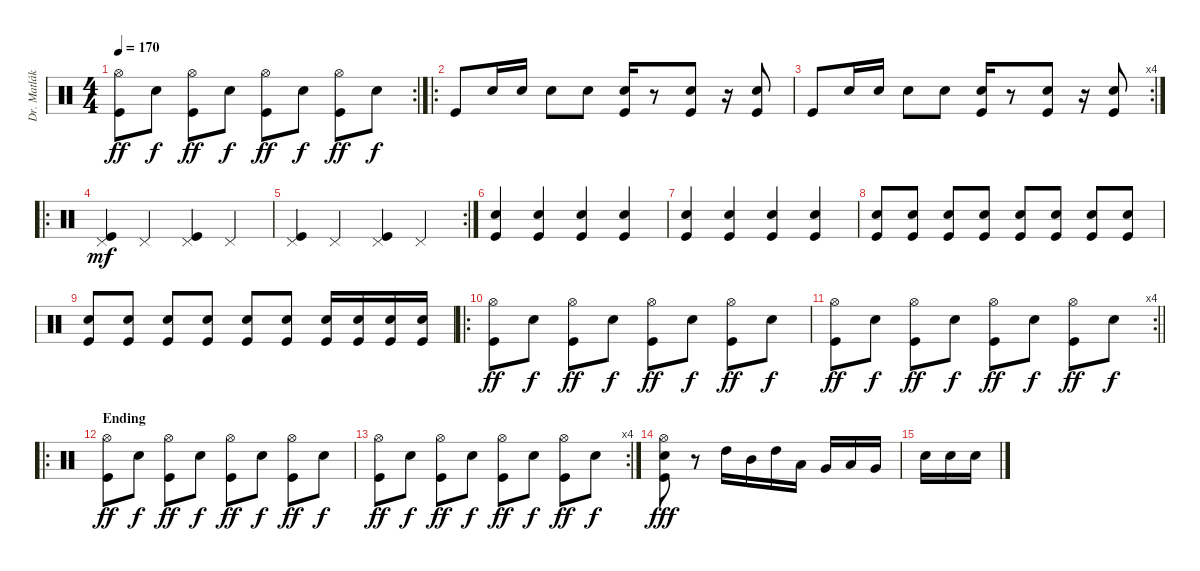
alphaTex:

\track ("Dr. Matlák" "Dr. Matlák") {instrument percussion}
\staff {score}
\articulation defaults
\rc 2
\ts (4 4)
\tempo 170
\clef neutral
\ks c
("Hi-Hat (open)" "Kick (hit)").8{dy ff} "Electric Snare (hit)".8{dy f} ("Hi-Hat (open)" "Kick (hit)").8{dy ff} "Electric Snare (hit)".8{dy f} ("Hi-Hat (open)" "Kick (hit)").8{dy ff} "Electric Snare (hit)".8{dy f} ("Hi-Hat (open)" "Kick (hit)").8{dy ff} "Electric Snare (hit)".8{dy f} |
\ro "Kick (hit)".8 "Electric Snare (hit)".16 "Electric Snare (hit)".16 "Electric Snare (hit)".8 "Electric Snare (hit)".8
("Electric Snare (hit)" "Kick (hit)").16 r.8 ("Electric Snare (hit)" "Kick (hit)").8 r.16 ("Electric Snare (hit)" "Kick (hit)").8 |
\rc 4 "Kick (hit)".8 "Electric Snare (hit)".16 "Electric Snare (hit)".16 "Electric Snare (hit)".8 "Electric Snare (hit)".8
("Electric Snare (hit)" "Kick (hit)").16 r.8 ("Electric Snare (hit)" "Kick (hit)").8 r.16 ("Electric Snare (hit)" "Kick (hit)").8 |
\ro
("Pedal Hi-Hat (hit)" "Kick (hit)").4{dy mf} "Pedal Hi-Hat (hit)".4 ("Pedal Hi-Hat (hit)" "Kick (hit)").4 "Pedal Hi-Hat (hit)".4 |
\rc 2
("Pedal Hi-Hat (hit)" "Kick (hit)").4 "Pedal Hi-Hat (hit)".4 ("Pedal Hi-Hat (hit)" "Kick (hit)").4 "Pedal Hi-Hat (hit)".4 |
("Electric Snare (hit)" "Kick (hit)").4 ("Electric Snare (hit)" "Kick (hit)").4 ("Electric Snare (hit)" "Kick (hit)").4 ("Electric Snare (hit)" "Kick (hit)").4 |
("Electric Snare (hit)" "Kick (hit)").4 ("Electric Snare (hit)" "Kick (hit)").4 ("Electric Snare (hit)" "Kick (hit)").4 ("Electric Snare (hit)" "Kick (hit)").4 |
("Electric Snare (hit)" "Kick (hit)").8 ("Electric Snare (hit)" "Kick (hit)").8 ("Electric Snare (hit)" "Kick (hit)").8 ("Electric Snare (hit)" "Kick (hit)").8 ("Electric Snare (hit)" "Kick (hit)").8 ("Electric Snare (hit)" "Kick (hit)").8 ("Electric Snare (hit)" "Kick (hit)").8 ("Electric Snare (hit)" "Kick (hit)").8 |
("Electric Snare (hit)" "Kick (hit)").8 ("Electric Snare (hit)" "Kick (hit)").8 ("Electric Snare (hit)" "Kick (hit)").8 ("Electric Snare (hit)" "Kick (hit)").8 ("Electric Snare (hit)" "Kick (hit)").8 ("Electric Snare (hit)" "Kick (hit)").8 ("Electric Snare (hit)" "Kick (hit)").16 ("Electric Snare (hit)" "Kick (hit)").16 ("Electric Snare (hit)" "Kick (hit)").16 ("Electric Snare (hit)" "Kick (hit)").16 |
\ro
("Hi-Hat (open)" "Kick (hit)").8{dy ff} "Electric Snare (hit)".8{dy f} ("Hi-Hat (open)" "Kick (hit)").8{dy ff} "Electric Snare (hit)".8{dy f} ("Hi-Hat (open)" "Kick (hit)").8{dy ff} "Electric Snare (hit)".8{dy f} ("Hi-Hat (open)" "Kick (hit)").8{dy ff} "Electric Snare (hit)".8{dy f} |
\rc 4
\barLineRight lightlight
("Hi-Hat (open)" "Kick (hit)").8{dy ff} "Electric Snare (hit)".8{dy f} ("Hi-Hat (open)" "Kick (hit)").8{dy ff} "Electric Snare (hit)".8{dy f} ("Hi-Hat (open)" "Kick (hit)").8{dy ff} "Electric Snare (hit)".8{dy f} ("Hi-Hat (open)" "Kick (hit)").8{dy ff} "Electric Snare (hit)".8{dy f} |
\ro
\section ("" "Ending")
("Hi-Hat (open)" "Kick (hit)").8{dy ff} "Electric Snare (hit)".8{dy f} ("Hi-Hat (open)" "Kick (hit)").8{dy ff} "Electric Snare (hit)".8{dy f} ("Hi-Hat (open)" "Kick (hit)").8{dy ff} "Electric Snare (hit)".8{dy f} ("Hi-Hat (open)" "Kick (hit)").8{dy ff} "Electric Snare (hit)".8{dy f} |
\rc 4
("Hi-Hat (open)" "Kick (hit)").8{dy ff} "Electric Snare (hit)".8{dy f} ("Hi-Hat (open)" "Kick (hit)").8{dy ff} "Electric Snare (hit)".8{dy f} ("Hi-Hat (open)" "Kick (hit)").8{dy ff} "Electric Snare (hit)".8{dy f} ("Hi-Hat (open)" "Kick (hit)").8{dy ff} "Electric Snare (hit)".8{dy f} |
("Hi-Hat (open)" "Electric Snare (hit)" "Kick (hit)").8{dy fff} r.8 "High Tom (hit)".16 "Mid Tom (hit)".16 "High Tom (hit)".16 "Low Tom (hit)".16 "Very Low Tom (hit)".16 "Low Tom (hit)".16 "Very Low Tom (hit)".16 |
"Electric Snare (hit)".16 "Electric Snare (hit)".16 "Electric Snare (hit)".16
